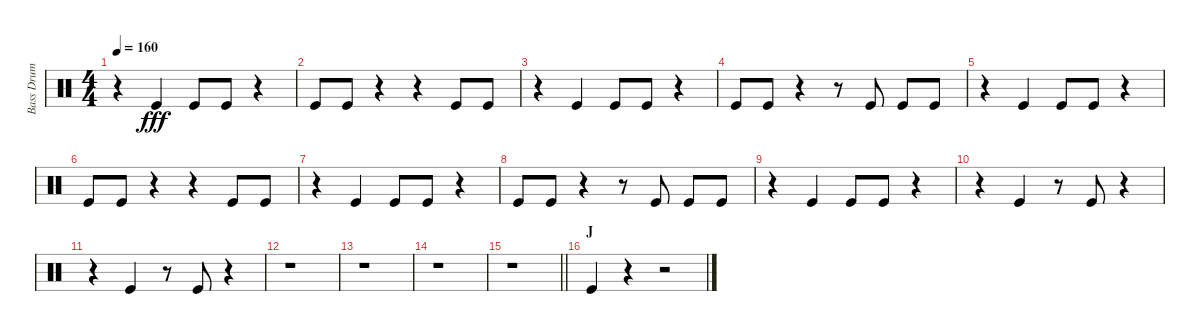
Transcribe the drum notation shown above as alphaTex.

\track ("Bass Drum" "Bass Drum") {instrument percussion}
\staff {score}
\articulation defaults
\ts (4 4)
\tempo 160
\clef neutral
\ks c
r.4{dy fff} "Kick (hit)".4 "Kick (hit)".8 "Kick (hit)".8 r.4 |
"Kick (hit)".8 "Kick (hit)".8 r.4 r.4 "Kick (hit)".8 "Kick (hit)".8 |
r.4 "Kick (hit)".4 "Kick (hit)".8 "Kick (hit)".8 r.4 |
"Kick (hit)".8 "Kick (hit)".8 r.4 r.8 "Kick (hit)".8 "Kick (hit)".8 "Kick (hit)".8 |
r.4 "Kick (hit)".4 "Kick (hit)".8 "Kick (hit)".8 r.4 |
"Kick (hit)".8 "Kick (hit)".8 r.4 r.4 "Kick (hit)".8 "Kick (hit)".8 |
r.4 "Kick (hit)".4 "Kick (hit)".8 "Kick (hit)".8 r.4 |
"Kick (hit)".8 "Kick (hit)".8 r.4 r.8 "Kick (hit)".8 "Kick (hit)".8 "Kick (hit)".8 |
r.4 "Kick (hit)".4 "Kick (hit)".8 "Kick (hit)".8 r.4 |
r.4 "Kick (hit)".4 r.8 "Kick (hit)".8 r.4 |
r.4 "Kick (hit)".4 r.8 "Kick (hit)".8 r.4 |
r.1 |
r.1 |
r.1 |
\barLineRight lightlight
r.1 |
\section ("" "J")
"Kick (hit)".4 r.4 r.2
